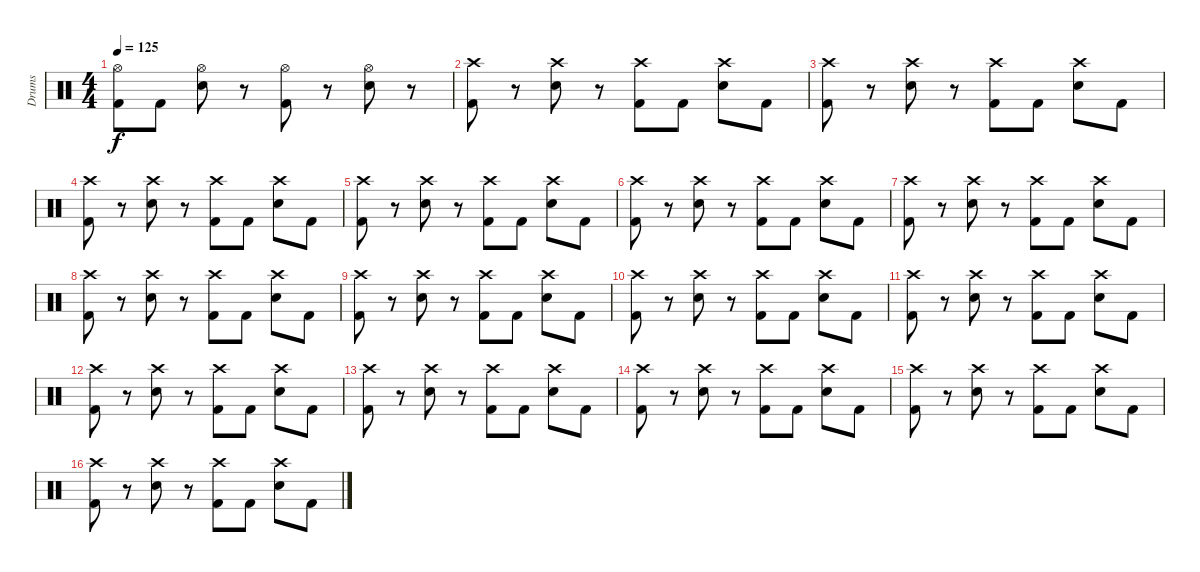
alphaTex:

\track ("Drums" "Drums") {instrument percussion}
\staff {score}
\articulation defaults
\ts (4 4)
\tempo 125
\clef neutral
\ks c
("Hi-Hat (open)" "Kick (hit) 2").8{dy f} "Kick (hit) 2".8 ("Hi-Hat (open)" "Electric Snare (hit)").8 r.8 ("Hi-Hat (open)" "Kick (hit) 2").8 r.8 ("Hi-Hat (open)" "Electric Snare (hit)").8 r.8 |
("Crash high (hit)" "Kick (hit) 2").8 r.8 ("Crash high (hit)" "Electric Snare (hit)").8 r.8 ("Crash high (hit)" "Kick (hit) 2").8 "Kick (hit) 2".8 ("Crash high (hit)" "Electric Snare (hit)").8 "Kick (hit) 2".8 |
("Crash high (hit)" "Kick (hit) 2").8 r.8 ("Crash high (hit)" "Electric Snare (hit)").8 r.8 ("Crash high (hit)" "Kick (hit) 2").8 "Kick (hit) 2".8 ("Crash high (hit)" "Electric Snare (hit)").8 "Kick (hit) 2".8 |
("Crash high (hit)" "Kick (hit) 2").8 r.8 ("Crash high (hit)" "Electric Snare (hit)").8 r.8 ("Crash high (hit)" "Kick (hit) 2").8 "Kick (hit) 2".8 ("Crash high (hit)" "Electric Snare (hit)").8 "Kick (hit) 2".8 |
("Crash high (hit)" "Kick (hit) 2").8 r.8 ("Crash high (hit)" "Electric Snare (hit)").8 r.8 ("Crash high (hit)" "Kick (hit) 2").8 "Kick (hit) 2".8 ("Crash high (hit)" "Electric Snare (hit)").8 "Kick (hit) 2".8 |
("Crash high (hit)" "Kick (hit) 2").8 r.8 ("Crash high (hit)" "Electric Snare (hit)").8 r.8 ("Crash high (hit)" "Kick (hit) 2").8 "Kick (hit) 2".8 ("Crash high (hit)" "Electric Snare (hit)").8 "Kick (hit) 2".8 |
("Crash high (hit)" "Kick (hit) 2").8 r.8 ("Crash high (hit)" "Electric Snare (hit)").8 r.8 ("Crash high (hit)" "Kick (hit) 2").8 "Kick (hit) 2".8 ("Crash high (hit)" "Electric Snare (hit)").8 "Kick (hit) 2".8 |
("Crash high (hit)" "Kick (hit) 2").8 r.8 ("Crash high (hit)" "Electric Snare (hit)").8 r.8 ("Crash high (hit)" "Kick (hit) 2").8 "Kick (hit) 2".8 ("Crash high (hit)" "Electric Snare (hit)").8 "Kick (hit) 2".8 |
("Crash high (hit)" "Kick (hit) 2").8 r.8 ("Crash high (hit)" "Electric Snare (hit)").8 r.8 ("Crash high (hit)" "Kick (hit) 2").8 "Kick (hit) 2".8 ("Crash high (hit)" "Electric Snare (hit)").8 "Kick (hit) 2".8 |
("Crash high (hit)" "Kick (hit) 2").8 r.8 ("Crash high (hit)" "Electric Snare (hit)").8 r.8 ("Crash high (hit)" "Kick (hit) 2").8 "Kick (hit) 2".8 ("Crash high (hit)" "Electric Snare (hit)").8 "Kick (hit) 2".8 |
("Crash high (hit)" "Kick (hit) 2").8 r.8 ("Crash high (hit)" "Electric Snare (hit)").8 r.8 ("Crash high (hit)" "Kick (hit) 2").8 "Kick (hit) 2".8 ("Crash high (hit)" "Electric Snare (hit)").8 "Kick (hit) 2".8 |
("Crash high (hit)" "Kick (hit) 2").8 r.8 ("Crash high (hit)" "Electric Snare (hit)").8 r.8 ("Crash high (hit)" "Kick (hit) 2").8 "Kick (hit) 2".8 ("Crash high (hit)" "Electric Snare (hit)").8 "Kick (hit) 2".8 |
("Crash high (hit)" "Kick (hit) 2").8 r.8 ("Crash high (hit)" "Electric Snare (hit)").8 r.8 ("Crash high (hit)" "Kick (hit) 2").8 "Kick (hit) 2".8 ("Crash high (hit)" "Electric Snare (hit)").8 "Kick (hit) 2".8 |
("Crash high (hit)" "Kick (hit) 2").8 r.8 ("Crash high (hit)" "Electric Snare (hit)").8 r.8 ("Crash high (hit)" "Kick (hit) 2").8 "Kick (hit) 2".8 ("Crash high (hit)" "Electric Snare (hit)").8 "Kick (hit) 2".8 |
("Crash high (hit)" "Kick (hit) 2").8 r.8 ("Crash high (hit)" "Electric Snare (hit)").8 r.8 ("Crash high (hit)" "Kick (hit) 2").8 "Kick (hit) 2".8 ("Crash high (hit)" "Electric Snare (hit)").8 "Kick (hit) 2".8 |
("Crash high (hit)" "Kick (hit) 2").8 r.8 ("Crash high (hit)" "Electric Snare (hit)").8 r.8 ("Crash high (hit)" "Kick (hit) 2").8 "Kick (hit) 2".8 ("Crash high (hit)" "Electric Snare (hit)").8 "Kick (hit) 2".8
